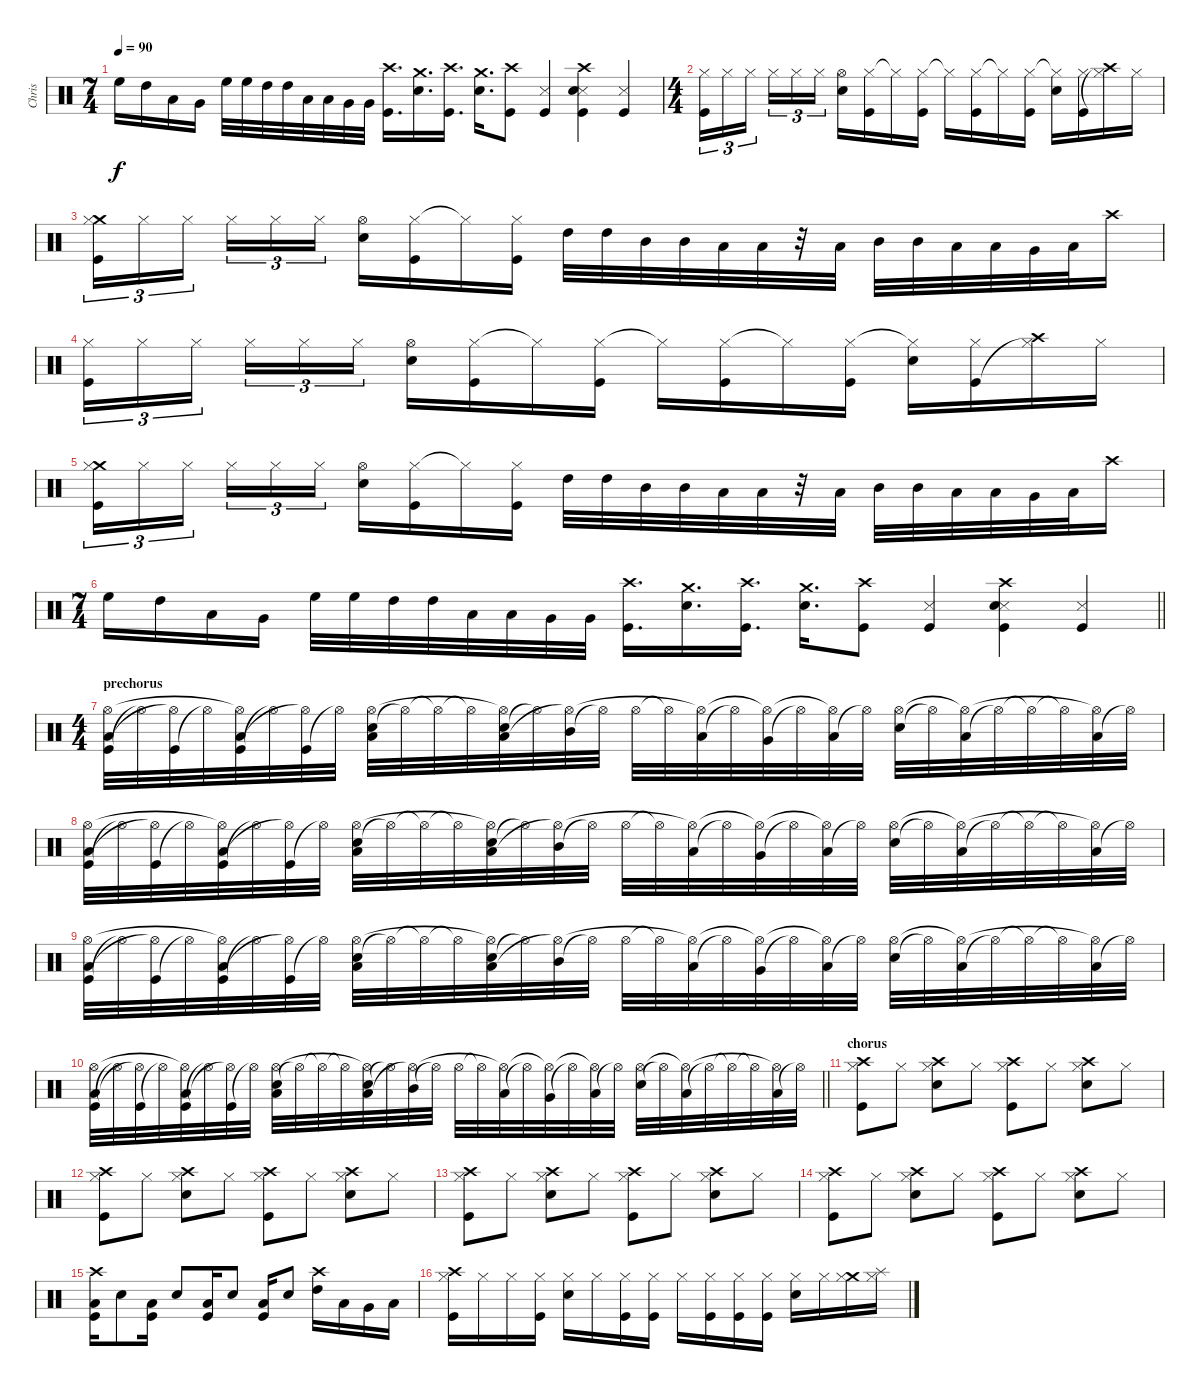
\track ("Chris" "Chris") {instrument percussion}
\staff {score}
\articulation defaults
\ts (7 4)
\tempo 90
\clef neutral
\ks c "High Floor Tom (hit)".16{dy f} "High Tom (hit)".16 "Low Tom (hit)".16 "Very Low Tom (hit)".16 "High Floor Tom (hit)".32 "High Floor Tom (hit)".32 "High Tom (hit)".32 "High Tom (hit)".32 "Low Tom (hit)".32 "Low Tom (hit)".32 "Very Low Tom (hit)".32 "Very Low Tom (hit)".32
("Crash high (hit)" "Kick (hit)").16{d} ("Crash medium (hit)" "Snare (hit) 2").16{d} ("Crash high (hit)" "Kick (hit)").16{d} ("Crash medium (hit)" "Snare (hit) 2").16{d} ("Crash high (hit)" "Kick (hit)").8 ("Snare (side stick) 3" "Kick (hit)").4 ("Snare (side stick) 3" "Crash high (hit)" "Snare (hit) 2" "Kick (hit)").4 ("Snare (side stick) 3" "Kick (hit)").4 |
\ts (4 4)
("Hi-Hat (closed)" "Kick (hit)").16{tu (3 2)} "Hi-Hat (closed)".16{tu (3 2)} "Hi-Hat (closed)".16{tu (3 2) beam splitsecondary} "Hi-Hat (closed)".16{tu (3 2)} "Hi-Hat (closed)".16{tu (3 2)} "Hi-Hat (closed)".16{tu (3 2)} ("Hi-Hat (open)" "Snare (hit) 2").16 ("Hi-Hat (closed)" "Kick (hit)").16 "Hi-Hat (closed)"{t}.16 ("Hi-Hat (closed)" "Kick (hit)").16 "Hi-Hat (closed)"{t}.16 ("Hi-Hat (closed)" "Kick (hit)").16 "Hi-Hat (closed)"{t}.16 ("Hi-Hat (closed)" "Kick (hit)").16 ("Hi-Hat (closed)"{t} "Snare (hit) 2").16 ("Hi-Hat (closed)" "Kick (hit)").16 ("Crash high (hit)" "Hi-Hat (closed)"{t}).16 "Hi-Hat (closed)".16 |
("Crash medium (hit)" "Hi-Hat (closed)" "Kick (hit)").16{tu (3 2)} "Hi-Hat (closed)".16{tu (3 2)} "Hi-Hat (closed)".16{tu (3 2) beam splitsecondary} "Hi-Hat (closed)".16{tu (3 2)} "Hi-Hat (closed)".16{tu (3 2)} "Hi-Hat (closed)".16{tu (3 2)} ("Hi-Hat (open)" "Snare (hit) 2").16 ("Hi-Hat (closed)" "Kick (hit)").16 "Hi-Hat (closed)"{t}.16 ("Hi-Hat (closed)" "Kick (hit)").16 "High Tom (hit)".32 "High Tom (hit)".32 "Mid Tom (hit)".32 "Mid Tom (hit)".32 "Low Tom (hit)".32 "Low Floor Tom (hit)".32 r.32 "Low Floor Tom (hit)".32 "Mid Tom (hit)".32 "Mid Tom (hit)".32 "Low Tom (hit)".32 "Low Tom (hit)".32 "Very Low Tom (hit)".32 "Low Floor Tom (hit)".32 "Crash high (hit)".16 |
("Hi-Hat (closed)" "Kick (hit)").16{tu (3 2)} "Hi-Hat (closed)".16{tu (3 2)} "Hi-Hat (closed)".16{tu (3 2) beam splitsecondary} "Hi-Hat (closed)".16{tu (3 2)} "Hi-Hat (closed)".16{tu (3 2)} "Hi-Hat (closed)".16{tu (3 2)} ("Hi-Hat (open)" "Snare (hit) 2").16 ("Hi-Hat (closed)" "Kick (hit)").16 "Hi-Hat (closed)"{t}.16 ("Hi-Hat (closed)" "Kick (hit)").16 "Hi-Hat (closed)"{t}.16 ("Hi-Hat (closed)" "Kick (hit)").16 "Hi-Hat (closed)"{t}.16 ("Hi-Hat (closed)" "Kick (hit)").16 ("Hi-Hat (closed)"{t} "Snare (hit) 2").16 ("Hi-Hat (closed)" "Kick (hit)").16 ("Crash high (hit)" "Hi-Hat (closed)"{t}).16 "Hi-Hat (closed)".16 |
("Crash medium (hit)" "Hi-Hat (closed)" "Kick (hit)").16{tu (3 2)} "Hi-Hat (closed)".16{tu (3 2)} "Hi-Hat (closed)".16{tu (3 2) beam splitsecondary} "Hi-Hat (closed)".16{tu (3 2)} "Hi-Hat (closed)".16{tu (3 2)} "Hi-Hat (closed)".16{tu (3 2)} ("Hi-Hat (open)" "Snare (hit) 2").16 ("Hi-Hat (closed)" "Kick (hit)").16 "Hi-Hat (closed)"{t}.16 ("Hi-Hat (closed)" "Kick (hit)").16 "High Tom (hit)".32 "High Tom (hit)".32 "Mid Tom (hit)".32 "Mid Tom (hit)".32 "Low Tom (hit)".32 "Low Floor Tom (hit)".32 r.32 "Low Floor Tom (hit)".32 "Mid Tom (hit)".32 "Mid Tom (hit)".32 "Low Tom (hit)".32 "Low Tom (hit)".32 "Very Low Tom (hit)".32 "Low Floor Tom (hit)".32 "Crash high (hit)".16 |
\ts (7 4)
\barLineRight lightlight "High Floor Tom (hit)".16 "High Tom (hit)".16 "Low Tom (hit)".16 "Very Low Tom (hit)".16 "High Floor Tom (hit)".32 "High Floor Tom (hit)".32 "High Tom (hit)".32 "High Tom (hit)".32 "Low Tom (hit)".32 "Low Tom (hit)".32 "Very Low Tom (hit)".32 "Very Low Tom (hit)".32
("Crash high (hit)" "Kick (hit)").16{d} ("Crash medium (hit)" "Snare (hit) 2").16{d} ("Crash high (hit)" "Kick (hit)").16{d} ("Crash medium (hit)" "Snare (hit) 2").16{d} ("Crash high (hit)" "Kick (hit)").8 ("Snare (side stick) 3" "Kick (hit)").4 ("Snare (side stick) 3" "Crash high (hit)" "Snare (hit) 2" "Kick (hit)").4 ("Snare (side stick) 3" "Kick (hit)").4 |
\ts (4 4)
\section ("" "prechorus")
("Kick (hit)" "Low Floor Tom (hit)" "Hi-Hat (open)").32 "Hi-Hat (open)"{t}.32 ("Kick (hit)" "Hi-Hat (open)"{t}).32 "Hi-Hat (open)"{t}.32 ("Kick (hit)" "Low Floor Tom (hit)" "Hi-Hat (open)"{t}).32 "Hi-Hat (open)"{t}.32 ("Kick (hit)" "Hi-Hat (open)"{t}).32 "Hi-Hat (open)"{t}.32 ("Snare (hit) 2" "Low Floor Tom (hit)" "Hi-Hat (open)").32 "Hi-Hat (open)"{t}.32 "Hi-Hat (open)"{t}.32 "Hi-Hat (open)"{t}.32 ("Snare (hit) 2" "Low Floor Tom (hit)" "Hi-Hat (open)"{t}).32 "Hi-Hat (open)"{t}.32 ("Mid Tom (hit)" "Hi-Hat (open)"{t}).32 "Hi-Hat (open)"{t}.32 "Hi-Hat (open)".32 "Hi-Hat (open)"{t}.32 ("Low Tom (hit)" "Hi-Hat (open)"{t}).32 "Hi-Hat (open)"{t}.32 ("Very Low Tom (hit)" "Hi-Hat (open)"{t}).32 "Hi-Hat (open)"{t}.32 ("Low Floor Tom (hit)" "Hi-Hat (open)"{t}).32 "Hi-Hat (open)"{t}.32 ("Snare (hit) 2" "Hi-Hat (open)").32 "Hi-Hat (open)"{t}.32 ("Low Floor Tom (hit)" "Hi-Hat (open)"{t}).32 "Hi-Hat (open)"{t}.32 "Hi-Hat (open)"{t}.32 "Hi-Hat (open)"{t}.32 ("Low Floor Tom (hit)" "Hi-Hat (open)"{t}).32 "Hi-Hat (open)"{t}.32 |
("Kick (hit)" "Low Floor Tom (hit)" "Hi-Hat (open)").32 "Hi-Hat (open)"{t}.32 ("Kick (hit)" "Hi-Hat (open)"{t}).32 "Hi-Hat (open)"{t}.32 ("Kick (hit)" "Low Floor Tom (hit)" "Hi-Hat (open)"{t}).32 "Hi-Hat (open)"{t}.32 ("Kick (hit)" "Hi-Hat (open)"{t}).32 "Hi-Hat (open)"{t}.32 ("Snare (hit) 2" "Low Floor Tom (hit)" "Hi-Hat (open)").32 "Hi-Hat (open)"{t}.32 "Hi-Hat (open)"{t}.32 "Hi-Hat (open)"{t}.32 ("Snare (hit) 2" "Low Floor Tom (hit)" "Hi-Hat (open)"{t}).32 "Hi-Hat (open)"{t}.32 ("Mid Tom (hit)" "Hi-Hat (open)"{t}).32 "Hi-Hat (open)"{t}.32 "Hi-Hat (open)".32 "Hi-Hat (open)"{t}.32 ("Low Tom (hit)" "Hi-Hat (open)"{t}).32 "Hi-Hat (open)"{t}.32 ("Very Low Tom (hit)" "Hi-Hat (open)"{t}).32 "Hi-Hat (open)"{t}.32 ("Low Floor Tom (hit)" "Hi-Hat (open)"{t}).32 "Hi-Hat (open)"{t}.32 ("Snare (hit) 2" "Hi-Hat (open)").32 "Hi-Hat (open)"{t}.32 ("Low Floor Tom (hit)" "Hi-Hat (open)"{t}).32 "Hi-Hat (open)"{t}.32 "Hi-Hat (open)"{t}.32 "Hi-Hat (open)"{t}.32 ("Low Floor Tom (hit)" "Hi-Hat (open)"{t}).32 "Hi-Hat (open)"{t}.32 |
("Kick (hit)" "Low Floor Tom (hit)" "Hi-Hat (open)").32 "Hi-Hat (open)"{t}.32 ("Kick (hit)" "Hi-Hat (open)"{t}).32 "Hi-Hat (open)"{t}.32 ("Kick (hit)" "Low Floor Tom (hit)" "Hi-Hat (open)"{t}).32 "Hi-Hat (open)"{t}.32 ("Kick (hit)" "Hi-Hat (open)"{t}).32 "Hi-Hat (open)"{t}.32 ("Snare (hit) 2" "Low Floor Tom (hit)" "Hi-Hat (open)").32 "Hi-Hat (open)"{t}.32 "Hi-Hat (open)"{t}.32 "Hi-Hat (open)"{t}.32 ("Snare (hit) 2" "Low Floor Tom (hit)" "Hi-Hat (open)"{t}).32 "Hi-Hat (open)"{t}.32 ("Mid Tom (hit)" "Hi-Hat (open)"{t}).32 "Hi-Hat (open)"{t}.32 "Hi-Hat (open)".32 "Hi-Hat (open)"{t}.32 ("Low Tom (hit)" "Hi-Hat (open)"{t}).32 "Hi-Hat (open)"{t}.32 ("Very Low Tom (hit)" "Hi-Hat (open)"{t}).32 "Hi-Hat (open)"{t}.32 ("Low Floor Tom (hit)" "Hi-Hat (open)"{t}).32 "Hi-Hat (open)"{t}.32 ("Snare (hit) 2" "Hi-Hat (open)").32 "Hi-Hat (open)"{t}.32 ("Low Floor Tom (hit)" "Hi-Hat (open)"{t}).32 "Hi-Hat (open)"{t}.32 "Hi-Hat (open)"{t}.32 "Hi-Hat (open)"{t}.32 ("Low Floor Tom (hit)" "Hi-Hat (open)"{t}).32 "Hi-Hat (open)"{t}.32 |
\barLineRight lightlight
("Kick (hit)" "Low Floor Tom (hit)" "Hi-Hat (open)").32 "Hi-Hat (open)"{t}.32 ("Kick (hit)" "Hi-Hat (open)"{t}).32 "Hi-Hat (open)"{t}.32 ("Kick (hit)" "Low Floor Tom (hit)" "Hi-Hat (open)"{t}).32 "Hi-Hat (open)"{t}.32 ("Kick (hit)" "Hi-Hat (open)"{t}).32 "Hi-Hat (open)"{t}.32 ("Snare (hit) 2" "Low Floor Tom (hit)" "Hi-Hat (open)").32 "Hi-Hat (open)"{t}.32 "Hi-Hat (open)"{t}.32 "Hi-Hat (open)"{t}.32 ("Snare (hit) 2" "Low Floor Tom (hit)" "Hi-Hat (open)"{t}).32 "Hi-Hat (open)"{t}.32 ("Mid Tom (hit)" "Hi-Hat (open)"{t}).32 "Hi-Hat (open)"{t}.32 "Hi-Hat (open)".32 "Hi-Hat (open)"{t}.32 ("Low Tom (hit)" "Hi-Hat (open)"{t}).32 "Hi-Hat (open)"{t}.32 ("Very Low Tom (hit)" "Hi-Hat (open)"{t}).32 "Hi-Hat (open)"{t}.32 ("Low Floor Tom (hit)" "Hi-Hat (open)"{t}).32 "Hi-Hat (open)"{t}.32 ("Snare (hit) 2" "Hi-Hat (open)").32 "Hi-Hat (open)"{t}.32 ("Low Floor Tom (hit)" "Hi-Hat (open)"{t}).32 "Hi-Hat (open)"{t}.32 "Hi-Hat (open)"{t}.32 "Hi-Hat (open)"{t}.32 ("Low Floor Tom (hit)" "Hi-Hat (open)"{t}).32 "Hi-Hat (open)"{t}.32 |
\section ("" "chorus")
("Crash high (hit)" "Hi-Hat (closed)" "Kick (hit)").8 "Hi-Hat (closed)".8 ("Crash high (hit)" "Hi-Hat (closed)" "Snare (hit) 2").8 "Hi-Hat (closed)".8 ("Crash high (hit)" "Hi-Hat (closed)" "Kick (hit)").8 "Hi-Hat (closed)".8 ("Crash high (hit)" "Hi-Hat (closed)" "Snare (hit) 2").8 "Hi-Hat (closed)".8 |
("Crash high (hit)" "Hi-Hat (closed)" "Kick (hit)").8 "Hi-Hat (closed)".8 ("Crash high (hit)" "Hi-Hat (closed)" "Snare (hit) 2").8 "Hi-Hat (closed)".8 ("Crash high (hit)" "Hi-Hat (closed)" "Kick (hit)").8 "Hi-Hat (closed)".8 ("Crash high (hit)" "Hi-Hat (closed)" "Snare (hit) 2").8 "Hi-Hat (closed)".8 |
("Crash high (hit)" "Hi-Hat (closed)" "Kick (hit)").8 "Hi-Hat (closed)".8 ("Crash high (hit)" "Hi-Hat (closed)" "Snare (hit) 2").8 "Hi-Hat (closed)".8 ("Crash high (hit)" "Hi-Hat (closed)" "Kick (hit)").8 "Hi-Hat (closed)".8 ("Crash high (hit)" "Hi-Hat (closed)" "Snare (hit) 2").8 "Hi-Hat (closed)".8 |
("Crash high (hit)" "Hi-Hat (closed)" "Kick (hit)").8 "Hi-Hat (closed)".8 ("Crash high (hit)" "Hi-Hat (closed)" "Snare (hit) 2").8 "Hi-Hat (closed)".8 ("Crash high (hit)" "Hi-Hat (closed)" "Kick (hit)").8 "Hi-Hat (closed)".8 ("Crash high (hit)" "Hi-Hat (closed)" "Snare (hit) 2").8 "Hi-Hat (closed)".8 |
("Crash high (hit)" "Low Floor Tom (hit)" "Kick (hit)").16 "Snare (hit) 2".8 ("Low Floor Tom (hit)" "Kick (hit)").16 "Snare (hit) 2".8 ("Low Floor Tom (hit)" "Kick (hit)").16 "Snare (hit) 2".8 ("Low Floor Tom (hit)" "Kick (hit)").16 "Snare (hit) 2".8 ("Crash high (hit)" "High Tom (hit)").16 "Low Tom (hit)".16 "Very Low Tom (hit)".16 "Low Floor Tom (hit)".16 |
("Crash high (hit)" "Hi-Hat (closed)" "Kick (hit)").16 "Hi-Hat (closed)".16 "Hi-Hat (closed)".16 ("Hi-Hat (closed)" "Kick (hit)").16 ("Hi-Hat (closed)" "Snare (hit) 2").16 "Hi-Hat (closed)".16 ("Hi-Hat (closed)" "Kick (hit)").16 ("Hi-Hat (closed)" "Kick (hit)").16 "Hi-Hat (closed)".16 ("Hi-Hat (closed)" "Kick (hit)").16 ("Hi-Hat (closed)" "Kick (hit)").16 ("Hi-Hat (closed)" "Kick (hit)").16 ("Hi-Hat (closed)" "Snare (hit) 2").16 "Hi-Hat (closed)".16 ("Crash medium (hit)" "Hi-Hat (closed)").16 ("Splash (hit)" "Hi-Hat (closed)").16
